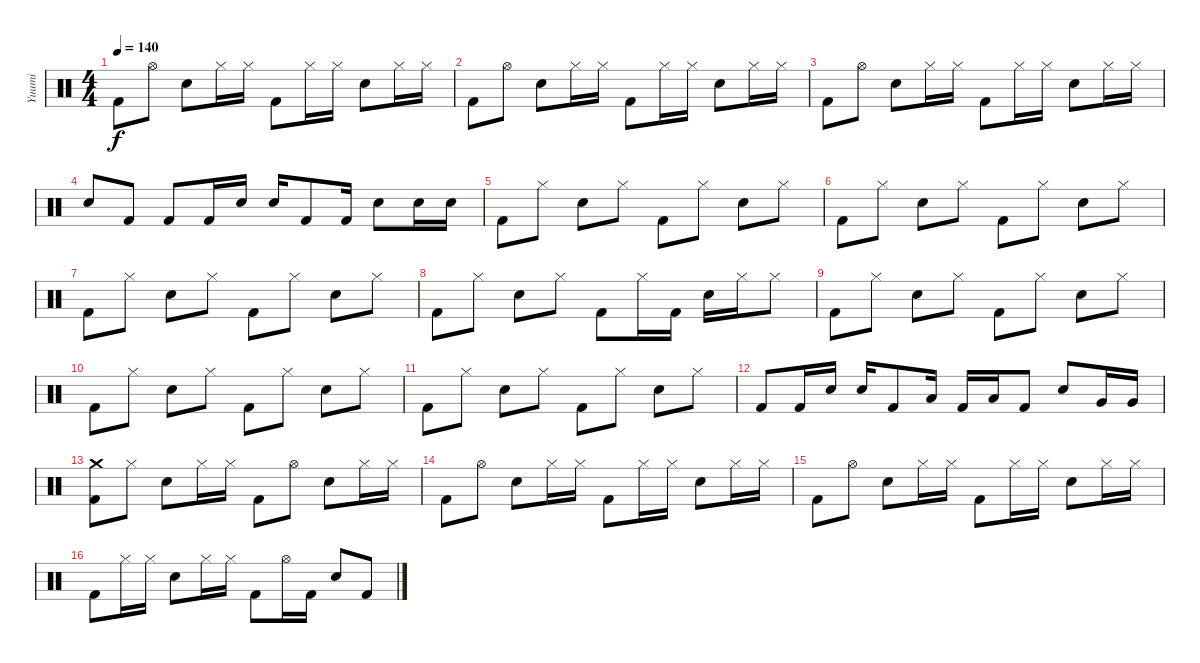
\track ("Yuumi" "Yuumi") {instrument percussion}
\staff {score}
\articulation defaults
\ts (4 4)
\tempo 140
\clef neutral
\ks c "Kick (hit) 2".8{dy f} "Hi-Hat (open)".8 "Electric Snare (hit)".8 "Hi-Hat (closed)".16 "Hi-Hat (closed)".16 "Kick (hit) 2".8 "Hi-Hat (closed)".16 "Hi-Hat (closed)".16 "Electric Snare (hit)".8 "Hi-Hat (closed)".16 "Hi-Hat (closed)".16
|
"Kick (hit) 2".8 "Hi-Hat (open)".8 "Electric Snare (hit)".8 "Hi-Hat (closed)".16 "Hi-Hat (closed)".16 "Kick (hit) 2".8 "Hi-Hat (closed)".16 "Hi-Hat (closed)".16 "Electric Snare (hit)".8 "Hi-Hat (closed)".16 "Hi-Hat (closed)".16 |
"Kick (hit) 2".8 "Hi-Hat (open)".8 "Electric Snare (hit)".8 "Hi-Hat (closed)".16 "Hi-Hat (closed)".16 "Kick (hit) 2".8 "Hi-Hat (closed)".16 "Hi-Hat (closed)".16 "Electric Snare (hit)".8 "Hi-Hat (closed)".16 "Hi-Hat (closed)".16 |
"Electric Snare (hit)".8 "Kick (hit) 2".8 "Kick (hit) 2".8 "Kick (hit) 2".16 "Electric Snare (hit)".16 "Electric Snare (hit)".16 "Kick (hit) 2".8 "Kick (hit) 2".16 "Electric Snare (hit)".8 "Electric Snare (hit)".16 "Electric Snare (hit)".16 |
"Kick (hit) 2".8 "Hi-Hat (closed)".8 "Electric Snare (hit)".8 "Hi-Hat (closed)".8 "Kick (hit) 2".8 "Hi-Hat (closed)".8 "Electric Snare (hit)".8 "Hi-Hat (closed)".8 |
"Kick (hit) 2".8 "Hi-Hat (closed)".8 "Electric Snare (hit)".8 "Hi-Hat (closed)".8 "Kick (hit) 2".8 "Hi-Hat (closed)".8 "Electric Snare (hit)".8 "Hi-Hat (closed)".8 |
"Kick (hit) 2".8 "Hi-Hat (closed)".8 "Electric Snare (hit)".8 "Hi-Hat (closed)".8 "Kick (hit) 2".8 "Hi-Hat (closed)".8 "Electric Snare (hit)".8 "Hi-Hat (closed)".8 |
"Kick (hit) 2".8 "Hi-Hat (closed)".8 "Electric Snare (hit)".8 "Hi-Hat (closed)".8 "Kick (hit) 2".8 "Hi-Hat (closed)".16 "Kick (hit) 2".16 "Electric Snare (hit)".16 "Hi-Hat (closed)".16 "Hi-Hat (closed)".8 |
"Kick (hit) 2".8 "Hi-Hat (closed)".8 "Electric Snare (hit)".8 "Hi-Hat (closed)".8 "Kick (hit) 2".8 "Hi-Hat (closed)".8 "Electric Snare (hit)".8 "Hi-Hat (closed)".8 |
"Kick (hit) 2".8 "Hi-Hat (closed)".8 "Electric Snare (hit)".8 "Hi-Hat (closed)".8 "Kick (hit) 2".8 "Hi-Hat (closed)".8 "Electric Snare (hit)".8 "Hi-Hat (closed)".8 |
"Kick (hit) 2".8 "Hi-Hat (closed)".8 "Electric Snare (hit)".8 "Hi-Hat (closed)".8 "Kick (hit) 2".8 "Hi-Hat (closed)".8 "Electric Snare (hit)".8 "Hi-Hat (closed)".8 |
"Kick (hit) 2".8 "Kick (hit) 2".16 "Electric Snare (hit)".16 "Electric Snare (hit)".16 "Kick (hit) 2".8 "Low Tom (hit)".16 "Kick (hit) 2".16 "Low Tom (hit)".16 "Kick (hit) 2".8 "Electric Snare (hit)".8 "Very Low Tom (hit)".16 "Very Low Tom (hit)".16 |
("Crash medium (hit)" "Kick (hit) 2").8 "Hi-Hat (closed)".8 "Electric Snare (hit)".8 "Hi-Hat (closed)".16 "Hi-Hat (closed)".16 "Kick (hit) 2".8 "Hi-Hat (open)".8 "Electric Snare (hit)".8 "Hi-Hat (closed)".16 "Hi-Hat (closed)".16 |
"Kick (hit) 2".8 "Hi-Hat (open)".8 "Electric Snare (hit)".8 "Hi-Hat (closed)".16 "Hi-Hat (closed)".16 "Kick (hit) 2".8 "Hi-Hat (closed)".16 "Hi-Hat (closed)".16 "Electric Snare (hit)".8 "Hi-Hat (closed)".16 "Hi-Hat (closed)".16 |
"Kick (hit) 2".8 "Hi-Hat (open)".8 "Electric Snare (hit)".8 "Hi-Hat (closed)".16 "Hi-Hat (closed)".16 "Kick (hit) 2".8 "Hi-Hat (closed)".16 "Hi-Hat (closed)".16 "Electric Snare (hit)".8 "Hi-Hat (closed)".16 "Hi-Hat (closed)".16 |
"Kick (hit) 2".8 "Hi-Hat (closed)".16 "Hi-Hat (closed)".16 "Electric Snare (hit)".8 "Hi-Hat (closed)".16 "Hi-Hat (closed)".16 "Kick (hit) 2".8 "Hi-Hat (open)".16 "Kick (hit) 2".16 "Electric Snare (hit)".8 "Kick (hit) 2".8
